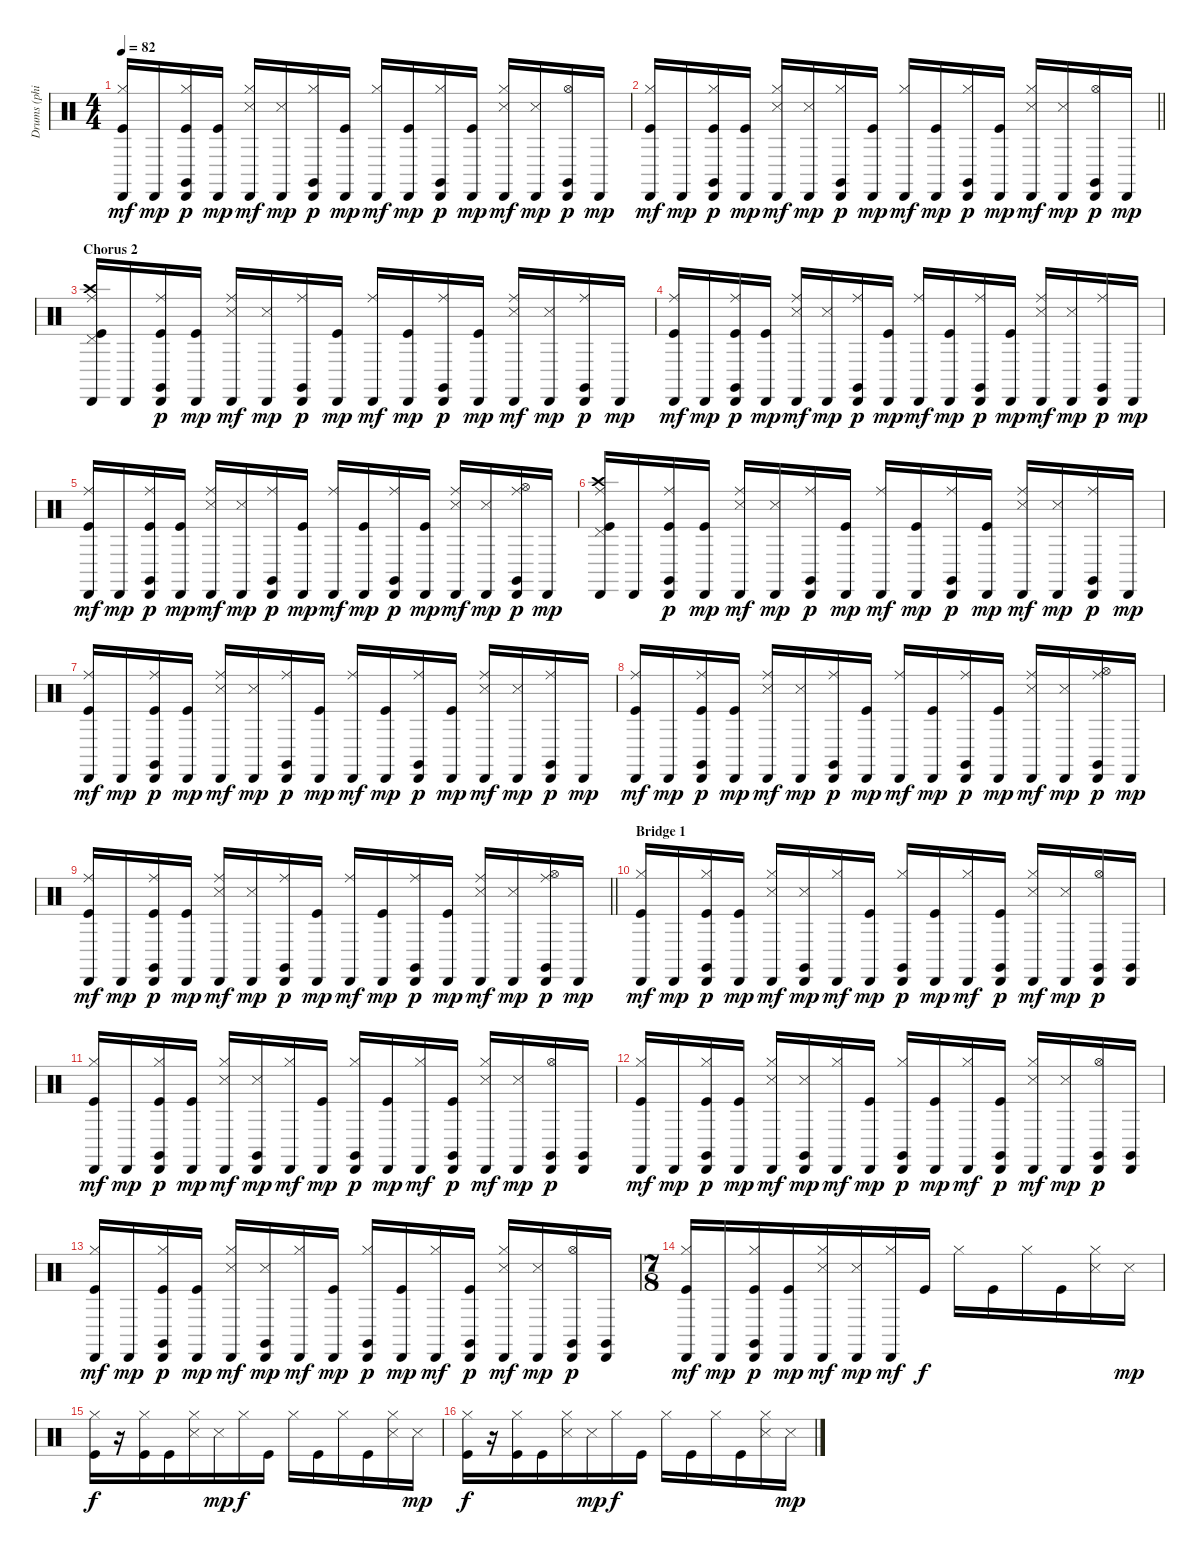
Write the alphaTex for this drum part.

\track ("Drums (phil)" "Drums (phi") {instrument percussion}
\staff {score}
\articulation defaults
\ts (4 4)
\tempo 82
\clef neutral
\ks c
("Hi-Hat (closed)" "Cabasa (hit)" "Kick (hit)").16{dy mf} "Cabasa (hit)".16{dy mp} ("Hi-Hat (closed)" "Cabasa (hit)" "Claves (hit)" "Kick (hit)").16{dy p} ("Cabasa (hit)" "Kick (hit)").16{dy mp} ("Hi-Hat (closed)" "Cabasa (hit)" "Snare (side stick) 3").16{dy mf} ("Cabasa (hit)" "Snare (side stick) 3").16{dy mp} ("Hi-Hat (closed)" "Cabasa (hit)" "Claves (hit)").16{dy p} ("Cabasa (hit)" "Kick (hit)").16{dy mp} ("Hi-Hat (closed)" "Cabasa (hit)").16{dy mf} ("Cabasa (hit)" "Kick (hit)").16{dy mp} ("Hi-Hat (closed)" "Cabasa (hit)" "Claves (hit)").16{dy p} ("Cabasa (hit)" "Kick (hit)").16{dy mp} ("Hi-Hat (closed)" "Cabasa (hit)" "Snare (side stick) 3").16{dy mf} ("Cabasa (hit)" "Snare (side stick) 3").16{dy mp} ("Hi-Hat (open)" "Cabasa (hit)" "Claves (hit)").16{dy p} "Cabasa (hit)".16{dy mp} |
\barLineRight lightlight
("Hi-Hat (closed)" "Cabasa (hit)" "Kick (hit)").16{dy mf} "Cabasa (hit)".16{dy mp} ("Hi-Hat (closed)" "Cabasa (hit)" "Claves (hit)" "Kick (hit)").16{dy p} ("Cabasa (hit)" "Kick (hit)").16{dy mp} ("Hi-Hat (closed)" "Cabasa (hit)" "Snare (side stick) 3").16{dy mf} ("Cabasa (hit)" "Snare (side stick) 3").16{dy mp} ("Hi-Hat (closed)" "Cabasa (hit)" "Claves (hit)").16{dy p} ("Cabasa (hit)" "Kick (hit)").16{dy mp} ("Hi-Hat (closed)" "Cabasa (hit)").16{dy mf} ("Cabasa (hit)" "Kick (hit)").16{dy mp} ("Hi-Hat (closed)" "Cabasa (hit)" "Claves (hit)").16{dy p} ("Cabasa (hit)" "Kick (hit)").16{dy mp} ("Hi-Hat (closed)" "Cabasa (hit)" "Snare (side stick) 3").16{dy mf} ("Cabasa (hit)" "Snare (side stick) 3").16{dy mp} ("Hi-Hat (open)" "Cabasa (hit)" "Claves (hit)").16{dy p} "Cabasa (hit)".16{dy mp} |
\section ("" "Chorus 2")
("Ride (middle)" "Cabasa (hit)" "Crash high (hit)" "Pedal Hi-Hat (hit)" "Kick (hit)").16 "Cabasa (hit)".16 ("Ride (middle)" "Cabasa (hit)" "Claves (hit)" "Kick (hit)").16{dy p} ("Cabasa (hit)" "Kick (hit)").16{dy mp} ("Ride (middle)" "Cabasa (hit)" "Snare (side stick) 3").16{dy mf} ("Cabasa (hit)" "Snare (side stick) 3").16{dy mp} ("Ride (middle)" "Cabasa (hit)" "Claves (hit)").16{dy p} ("Cabasa (hit)" "Kick (hit)").16{dy mp} ("Ride (middle)" "Cabasa (hit)").16{dy mf} ("Cabasa (hit)" "Kick (hit)").16{dy mp} ("Ride (middle)" "Cabasa (hit)" "Claves (hit)").16{dy p} ("Cabasa (hit)" "Kick (hit)").16{dy mp} ("Ride (middle)" "Cabasa (hit)" "Snare (side stick) 3").16{dy mf} ("Cabasa (hit)" "Snare (side stick) 3").16{dy mp} ("Ride (middle)" "Cabasa (hit)" "Claves (hit)").16{dy p} "Cabasa (hit)".16{dy mp} |
("Ride (middle)" "Cabasa (hit)" "Kick (hit)").16{dy mf} "Cabasa (hit)".16{dy mp} ("Ride (middle)" "Cabasa (hit)" "Claves (hit)" "Kick (hit)").16{dy p} ("Cabasa (hit)" "Kick (hit)").16{dy mp} ("Ride (middle)" "Cabasa (hit)" "Snare (side stick) 3").16{dy mf} ("Cabasa (hit)" "Snare (side stick) 3").16{dy mp} ("Ride (middle)" "Cabasa (hit)" "Claves (hit)").16{dy p} ("Cabasa (hit)" "Kick (hit)").16{dy mp} ("Ride (middle)" "Cabasa (hit)").16{dy mf} ("Cabasa (hit)" "Kick (hit)").16{dy mp} ("Ride (middle)" "Cabasa (hit)" "Claves (hit)").16{dy p} ("Cabasa (hit)" "Kick (hit)").16{dy mp} ("Ride (middle)" "Cabasa (hit)" "Snare (side stick) 3").16{dy mf} ("Cabasa (hit)" "Snare (side stick) 3").16{dy mp} ("Ride (middle)" "Cabasa (hit)" "Claves (hit)").16{dy p} "Cabasa (hit)".16{dy mp} |
("Ride (middle)" "Cabasa (hit)" "Kick (hit)").16{dy mf} "Cabasa (hit)".16{dy mp} ("Ride (middle)" "Cabasa (hit)" "Claves (hit)" "Kick (hit)").16{dy p} ("Cabasa (hit)" "Kick (hit)").16{dy mp} ("Ride (middle)" "Cabasa (hit)" "Snare (side stick) 3").16{dy mf} ("Cabasa (hit)" "Snare (side stick) 3").16{dy mp} ("Ride (middle)" "Cabasa (hit)" "Claves (hit)").16{dy p} ("Cabasa (hit)" "Kick (hit)").16{dy mp} ("Ride (middle)" "Cabasa (hit)").16{dy mf} ("Cabasa (hit)" "Kick (hit)").16{dy mp} ("Ride (middle)" "Cabasa (hit)" "Claves (hit)").16{dy p} ("Cabasa (hit)" "Kick (hit)").16{dy mp} ("Ride (middle)" "Cabasa (hit)" "Snare (side stick) 3").16{dy mf} ("Cabasa (hit)" "Snare (side stick) 3").16{dy mp} ("Ride (middle)" "Cabasa (hit)" "Claves (hit)" "Hi-Hat (open)").16{dy p} "Cabasa (hit)".16{dy mp} |
("Ride (middle)" "Cabasa (hit)" "Crash high (hit)" "Pedal Hi-Hat (hit)" "Kick (hit)").16 "Cabasa (hit)".16 ("Ride (middle)" "Cabasa (hit)" "Claves (hit)" "Kick (hit)").16{dy p} ("Cabasa (hit)" "Kick (hit)").16{dy mp} ("Ride (middle)" "Cabasa (hit)" "Snare (side stick) 3").16{dy mf} ("Cabasa (hit)" "Snare (side stick) 3").16{dy mp} ("Ride (middle)" "Cabasa (hit)" "Claves (hit)").16{dy p} ("Cabasa (hit)" "Kick (hit)").16{dy mp} ("Ride (middle)" "Cabasa (hit)").16{dy mf} ("Cabasa (hit)" "Kick (hit)").16{dy mp} ("Ride (middle)" "Cabasa (hit)" "Claves (hit)").16{dy p} ("Cabasa (hit)" "Kick (hit)").16{dy mp} ("Ride (middle)" "Cabasa (hit)" "Snare (side stick) 3").16{dy mf} ("Cabasa (hit)" "Snare (side stick) 3").16{dy mp} ("Ride (middle)" "Cabasa (hit)" "Claves (hit)").16{dy p} "Cabasa (hit)".16{dy mp} |
("Ride (middle)" "Cabasa (hit)" "Kick (hit)").16{dy mf} "Cabasa (hit)".16{dy mp} ("Ride (middle)" "Cabasa (hit)" "Claves (hit)" "Kick (hit)").16{dy p} ("Cabasa (hit)" "Kick (hit)").16{dy mp} ("Ride (middle)" "Cabasa (hit)" "Snare (side stick) 3").16{dy mf} ("Cabasa (hit)" "Snare (side stick) 3").16{dy mp} ("Ride (middle)" "Cabasa (hit)" "Claves (hit)").16{dy p} ("Cabasa (hit)" "Kick (hit)").16{dy mp} ("Ride (middle)" "Cabasa (hit)").16{dy mf} ("Cabasa (hit)" "Kick (hit)").16{dy mp} ("Ride (middle)" "Cabasa (hit)" "Claves (hit)").16{dy p} ("Cabasa (hit)" "Kick (hit)").16{dy mp} ("Ride (middle)" "Cabasa (hit)" "Snare (side stick) 3").16{dy mf} ("Cabasa (hit)" "Snare (side stick) 3").16{dy mp} ("Ride (middle)" "Cabasa (hit)" "Claves (hit)").16{dy p} "Cabasa (hit)".16{dy mp} |
("Ride (middle)" "Cabasa (hit)" "Kick (hit)").16{dy mf} "Cabasa (hit)".16{dy mp} ("Ride (middle)" "Cabasa (hit)" "Claves (hit)" "Kick (hit)").16{dy p} ("Cabasa (hit)" "Kick (hit)").16{dy mp} ("Ride (middle)" "Cabasa (hit)" "Snare (side stick) 3").16{dy mf} ("Cabasa (hit)" "Snare (side stick) 3").16{dy mp} ("Ride (middle)" "Cabasa (hit)" "Claves (hit)").16{dy p} ("Cabasa (hit)" "Kick (hit)").16{dy mp} ("Ride (middle)" "Cabasa (hit)").16{dy mf} ("Cabasa (hit)" "Kick (hit)").16{dy mp} ("Ride (middle)" "Cabasa (hit)" "Claves (hit)").16{dy p} ("Cabasa (hit)" "Kick (hit)").16{dy mp} ("Ride (middle)" "Cabasa (hit)" "Snare (side stick) 3").16{dy mf} ("Cabasa (hit)" "Snare (side stick) 3").16{dy mp} ("Ride (middle)" "Cabasa (hit)" "Claves (hit)" "Hi-Hat (open)").16{dy p} "Cabasa (hit)".16{dy mp} |
\barLineRight lightlight
("Ride (middle)" "Cabasa (hit)" "Kick (hit)").16{dy mf} "Cabasa (hit)".16{dy mp} ("Ride (middle)" "Cabasa (hit)" "Claves (hit)" "Kick (hit)").16{dy p} ("Cabasa (hit)" "Kick (hit)").16{dy mp} ("Ride (middle)" "Cabasa (hit)" "Snare (side stick) 3").16{dy mf} ("Cabasa (hit)" "Snare (side stick) 3").16{dy mp} ("Ride (middle)" "Cabasa (hit)" "Claves (hit)").16{dy p} ("Cabasa (hit)" "Kick (hit)").16{dy mp} ("Ride (middle)" "Cabasa (hit)").16{dy mf} ("Cabasa (hit)" "Kick (hit)").16{dy mp} ("Ride (middle)" "Cabasa (hit)" "Claves (hit)").16{dy p} ("Cabasa (hit)" "Kick (hit)").16{dy mp} ("Ride (middle)" "Cabasa (hit)" "Snare (side stick) 3").16{dy mf} ("Cabasa (hit)" "Snare (side stick) 3").16{dy mp} ("Ride (middle)" "Cabasa (hit)" "Claves (hit)" "Hi-Hat (open)").16{dy p} "Cabasa (hit)".16{dy mp} |
\section ("" "Bridge 1")
("Hi-Hat (closed)" "Cabasa (hit)" "Kick (hit)").16{dy mf} "Cabasa (hit)".16{dy mp} ("Hi-Hat (closed)" "Cabasa (hit)" "Claves (hit)" "Kick (hit)").16{dy p} ("Cabasa (hit)" "Kick (hit)").16{dy mp} ("Hi-Hat (closed)" "Cabasa (hit)" "Snare (side stick) 3").16{dy mf} ("Cabasa (hit)" "Claves (hit)" "Snare (side stick) 3").16{dy mp} ("Hi-Hat (closed)" "Cabasa (hit)").16{dy mf} ("Cabasa (hit)" "Kick (hit)").16{dy mp} ("Hi-Hat (closed)" "Cabasa (hit)" "Claves (hit)").16{dy p} ("Cabasa (hit)" "Kick (hit)").16{dy mp} ("Hi-Hat (closed)" "Cabasa (hit)").16{dy mf} ("Cabasa (hit)" "Claves (hit)" "Kick (hit)").16{dy p} ("Hi-Hat (closed)" "Cabasa (hit)" "Snare (side stick) 3").16{dy mf} ("Cabasa (hit)" "Snare (side stick) 3").16{dy mp} ("Hi-Hat (open)" "Cabasa (hit)" "Claves (hit)").16{dy p} ("Cabasa (hit)" "Claves (hit)").16 |
("Hi-Hat (closed)" "Cabasa (hit)" "Kick (hit)").16{dy mf} "Cabasa (hit)".16{dy mp} ("Hi-Hat (closed)" "Cabasa (hit)" "Claves (hit)" "Kick (hit)").16{dy p} ("Cabasa (hit)" "Kick (hit)").16{dy mp} ("Hi-Hat (closed)" "Cabasa (hit)" "Snare (side stick) 3").16{dy mf} ("Cabasa (hit)" "Claves (hit)" "Snare (side stick) 3").16{dy mp} ("Hi-Hat (closed)" "Cabasa (hit)").16{dy mf} ("Cabasa (hit)" "Kick (hit)").16{dy mp} ("Hi-Hat (closed)" "Cabasa (hit)" "Claves (hit)").16{dy p} ("Cabasa (hit)" "Kick (hit)").16{dy mp} ("Hi-Hat (closed)" "Cabasa (hit)").16{dy mf} ("Cabasa (hit)" "Claves (hit)" "Kick (hit)").16{dy p} ("Hi-Hat (closed)" "Cabasa (hit)" "Snare (side stick) 3").16{dy mf} ("Cabasa (hit)" "Snare (side stick) 3").16{dy mp} ("Hi-Hat (open)" "Cabasa (hit)" "Claves (hit)").16{dy p} ("Cabasa (hit)" "Claves (hit)").16 |
("Hi-Hat (closed)" "Cabasa (hit)" "Kick (hit)").16{dy mf} "Cabasa (hit)".16{dy mp} ("Hi-Hat (closed)" "Cabasa (hit)" "Claves (hit)" "Kick (hit)").16{dy p} ("Cabasa (hit)" "Kick (hit)").16{dy mp} ("Hi-Hat (closed)" "Cabasa (hit)" "Snare (side stick) 3").16{dy mf} ("Cabasa (hit)" "Claves (hit)" "Snare (side stick) 3").16{dy mp} ("Hi-Hat (closed)" "Cabasa (hit)").16{dy mf} ("Cabasa (hit)" "Kick (hit)").16{dy mp} ("Hi-Hat (closed)" "Cabasa (hit)" "Claves (hit)").16{dy p} ("Cabasa (hit)" "Kick (hit)").16{dy mp} ("Hi-Hat (closed)" "Cabasa (hit)").16{dy mf} ("Cabasa (hit)" "Claves (hit)" "Kick (hit)").16{dy p} ("Hi-Hat (closed)" "Cabasa (hit)" "Snare (side stick) 3").16{dy mf} ("Cabasa (hit)" "Snare (side stick) 3").16{dy mp} ("Hi-Hat (open)" "Cabasa (hit)" "Claves (hit)").16{dy p} ("Cabasa (hit)" "Claves (hit)").16 |
("Hi-Hat (closed)" "Cabasa (hit)" "Kick (hit)").16{dy mf} "Cabasa (hit)".16{dy mp} ("Hi-Hat (closed)" "Cabasa (hit)" "Claves (hit)" "Kick (hit)").16{dy p} ("Cabasa (hit)" "Kick (hit)").16{dy mp} ("Hi-Hat (closed)" "Cabasa (hit)" "Snare (side stick) 3").16{dy mf} ("Cabasa (hit)" "Claves (hit)" "Snare (side stick) 3").16{dy mp} ("Hi-Hat (closed)" "Cabasa (hit)").16{dy mf} ("Cabasa (hit)" "Kick (hit)").16{dy mp} ("Hi-Hat (closed)" "Cabasa (hit)" "Claves (hit)").16{dy p} ("Cabasa (hit)" "Kick (hit)").16{dy mp} ("Hi-Hat (closed)" "Cabasa (hit)").16{dy mf} ("Cabasa (hit)" "Claves (hit)" "Kick (hit)").16{dy p} ("Hi-Hat (closed)" "Cabasa (hit)" "Snare (side stick) 3").16{dy mf} ("Cabasa (hit)" "Snare (side stick) 3").16{dy mp} ("Hi-Hat (open)" "Cabasa (hit)" "Claves (hit)").16{dy p} ("Cabasa (hit)" "Claves (hit)").16 |
\ts (7 8)
("Hi-Hat (closed)" "Cabasa (hit)" "Kick (hit)").16{dy mf} "Cabasa (hit)".16{dy mp} ("Hi-Hat (closed)" "Cabasa (hit)" "Claves (hit)" "Kick (hit)").16{dy p} ("Cabasa (hit)" "Kick (hit)").16{dy mp} ("Hi-Hat (closed)" "Cabasa (hit)" "Snare (side stick) 3").16{dy mf} ("Cabasa (hit)" "Snare (side stick) 3").16{dy mp} ("Hi-Hat (closed)" "Cabasa (hit)").16{dy mf} "Kick (hit)".16{dy f} "Hi-Hat (closed)".16 "Kick (hit)".16 "Hi-Hat (closed)".16 "Kick (hit)".16 ("Hi-Hat (closed)" "Snare (side stick) 3").16 "Snare (side stick) 3".16{dy mp} |
("Hi-Hat (closed)" "Kick (hit)").16{dy f} r.16 ("Hi-Hat (closed)" "Kick (hit)").16 "Kick (hit)".16 ("Hi-Hat (closed)" "Snare (side stick) 3").16 "Snare (side stick) 3".16{dy mp} "Hi-Hat (closed)".16{dy f} "Kick (hit)".16 "Hi-Hat (closed)".16 "Kick (hit)".16 "Hi-Hat (closed)".16 "Kick (hit)".16 ("Hi-Hat (closed)" "Snare (side stick) 3").16 "Snare (side stick) 3".16{dy mp} |
("Hi-Hat (closed)" "Kick (hit)").16{dy f} r.16 ("Hi-Hat (closed)" "Kick (hit)").16 "Kick (hit)".16 ("Hi-Hat (closed)" "Snare (side stick) 3").16 "Snare (side stick) 3".16{dy mp} "Hi-Hat (closed)".16{dy f} "Kick (hit)".16 "Hi-Hat (closed)".16 "Kick (hit)".16 "Hi-Hat (closed)".16 "Kick (hit)".16 ("Hi-Hat (closed)" "Snare (side stick) 3").16 "Snare (side stick) 3".16{dy mp}
